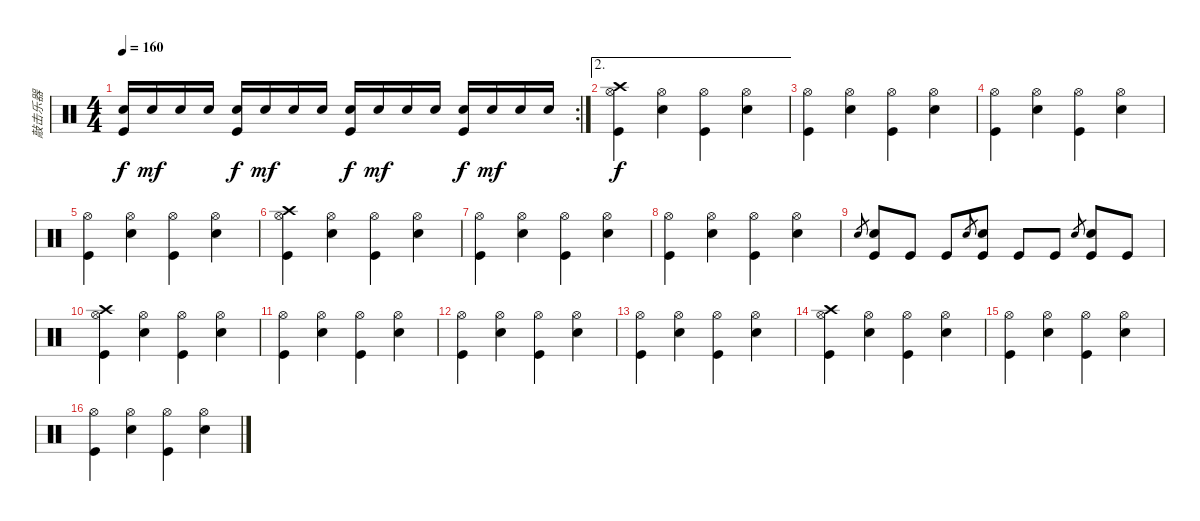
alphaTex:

\track ("敲击乐器" "敲击乐器") {instrument percussion}
\staff {score}
\articulation defaults
\rc 2
\ts (4 4)
\tempo 160
\clef neutral
\ks c
("Snare (hit) 2" "Kick (hit)").16{dy f} "Snare (hit) 2".16{dy mf} "Snare (hit) 2".16 "Snare (hit) 2".16 ("Snare (hit) 2" "Kick (hit)").16{dy f} "Snare (hit) 2".16{dy mf} "Snare (hit) 2".16 "Snare (hit) 2".16 ("Snare (hit) 2" "Kick (hit)").16{dy f} "Snare (hit) 2".16{dy mf} "Snare (hit) 2".16 "Snare (hit) 2".16 ("Snare (hit) 2" "Kick (hit)").16{dy f} "Snare (hit) 2".16{dy mf} "Snare (hit) 2".16 "Snare (hit) 2".16 |
\ae 2
("Crash high (hit)" "Hi-Hat (open)" "Kick (hit)").4{dy f} ("Snare (hit) 2" "Hi-Hat (open)").4 ("Hi-Hat (open)" "Kick (hit)").4 ("Snare (hit) 2" "Hi-Hat (open)").4 |
("Hi-Hat (open)" "Kick (hit)").4 ("Snare (hit) 2" "Hi-Hat (open)").4 ("Hi-Hat (open)" "Kick (hit)").4 ("Snare (hit) 2" "Hi-Hat (open)").4 |
("Hi-Hat (open)" "Kick (hit)").4 ("Snare (hit) 2" "Hi-Hat (open)").4 ("Hi-Hat (open)" "Kick (hit)").4 ("Snare (hit) 2" "Hi-Hat (open)").4 |
("Hi-Hat (open)" "Kick (hit)").4 ("Snare (hit) 2" "Hi-Hat (open)").4 ("Hi-Hat (open)" "Kick (hit)").4 ("Snare (hit) 2" "Hi-Hat (open)").4 |
("Crash high (hit)" "Hi-Hat (open)" "Kick (hit)").4 ("Snare (hit) 2" "Hi-Hat (open)").4 ("Hi-Hat (open)" "Kick (hit)").4 ("Snare (hit) 2" "Hi-Hat (open)").4 |
("Hi-Hat (open)" "Kick (hit)").4 ("Snare (hit) 2" "Hi-Hat (open)").4 ("Hi-Hat (open)" "Kick (hit)").4 ("Snare (hit) 2" "Hi-Hat (open)").4 |
("Hi-Hat (open)" "Kick (hit)").4 ("Snare (hit) 2" "Hi-Hat (open)").4 ("Hi-Hat (open)" "Kick (hit)").4 ("Snare (hit) 2" "Hi-Hat (open)").4 |
"Snare (hit) 2".8{gr} ("Snare (hit) 2" "Kick (hit)").8 "Kick (hit)".8 "Kick (hit)".8 "Snare (hit) 2".8{gr} ("Snare (hit) 2" "Kick (hit)").8 "Kick (hit)".8 "Kick (hit)".8 "Snare (hit) 2".8{gr} ("Snare (hit) 2" "Kick (hit)").8 "Kick (hit)".8 |
("Crash high (hit)" "Hi-Hat (open)" "Kick (hit)").4 ("Snare (hit) 2" "Hi-Hat (open)").4 ("Hi-Hat (open)" "Kick (hit)").4 ("Snare (hit) 2" "Hi-Hat (open)").4 |
("Hi-Hat (open)" "Kick (hit)").4 ("Snare (hit) 2" "Hi-Hat (open)").4 ("Hi-Hat (open)" "Kick (hit)").4 ("Snare (hit) 2" "Hi-Hat (open)").4 |
("Hi-Hat (open)" "Kick (hit)").4 ("Snare (hit) 2" "Hi-Hat (open)").4 ("Hi-Hat (open)" "Kick (hit)").4 ("Snare (hit) 2" "Hi-Hat (open)").4 |
("Hi-Hat (open)" "Kick (hit)").4 ("Snare (hit) 2" "Hi-Hat (open)").4 ("Hi-Hat (open)" "Kick (hit)").4 ("Snare (hit) 2" "Hi-Hat (open)").4 |
("Crash high (hit)" "Hi-Hat (open)" "Kick (hit)").4 ("Snare (hit) 2" "Hi-Hat (open)").4 ("Hi-Hat (open)" "Kick (hit)").4 ("Snare (hit) 2" "Hi-Hat (open)").4 |
("Hi-Hat (open)" "Kick (hit)").4 ("Snare (hit) 2" "Hi-Hat (open)").4 ("Hi-Hat (open)" "Kick (hit)").4 ("Snare (hit) 2" "Hi-Hat (open)").4 |
("Hi-Hat (open)" "Kick (hit)").4 ("Snare (hit) 2" "Hi-Hat (open)").4 ("Hi-Hat (open)" "Kick (hit)").4 ("Snare (hit) 2" "Hi-Hat (open)").4
